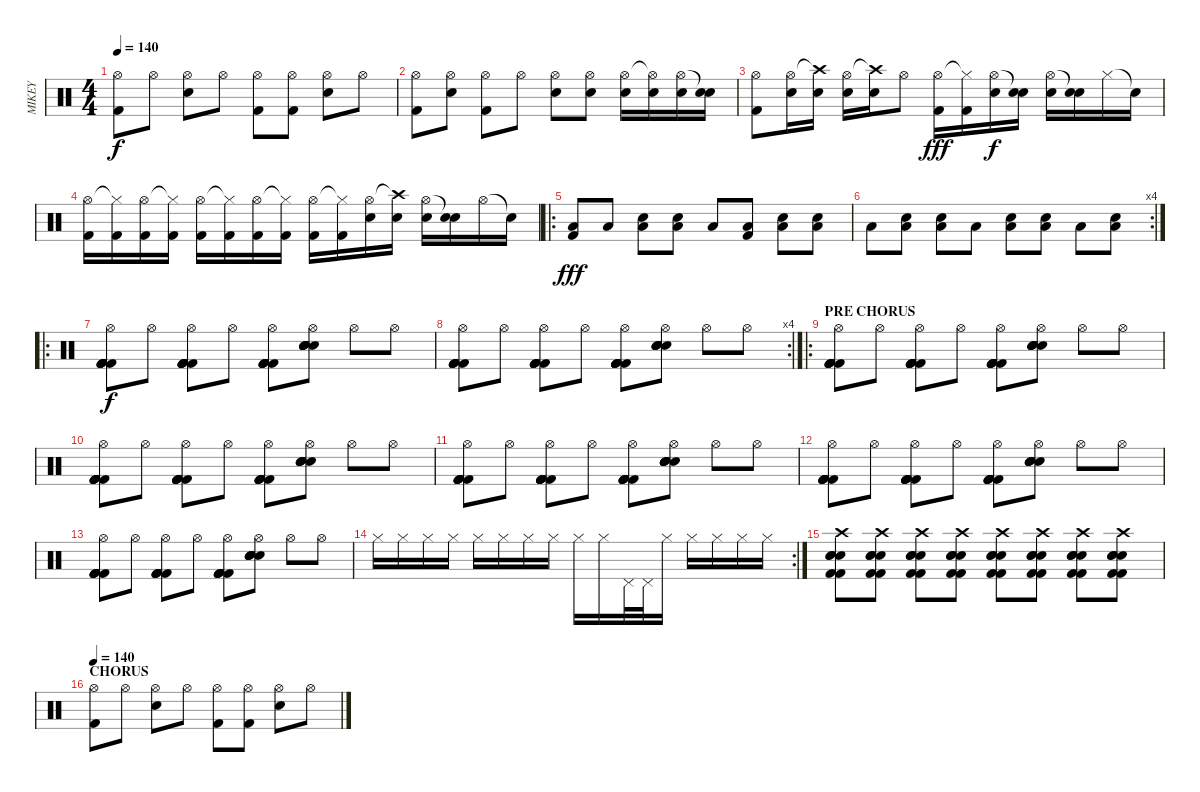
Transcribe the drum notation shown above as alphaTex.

\track ("MIKEY" "MIKEY") {instrument percussion}
\staff {score}
\articulation defaults
\ts (4 4)
\tempo 140
\clef neutral
\ks c
("Hi-Hat (open)" "Kick (hit) 2").8{dy f} "Hi-Hat (open)".8 ("Hi-Hat (open)" "Electric Snare (hit)").8 "Hi-Hat (open)".8 ("Hi-Hat (open)" "Kick (hit) 2").8 ("Hi-Hat (open)" "Kick (hit) 2").8 ("Hi-Hat (open)" "Electric Snare (hit)").8 "Hi-Hat (open)".8 |
("Hi-Hat (open)" "Kick (hit) 2").8 ("Hi-Hat (open)" "Electric Snare (hit)").8 ("Hi-Hat (open)" "Kick (hit) 2").8 "Hi-Hat (open)".8 ("Hi-Hat (open)" "Electric Snare (hit)").8 ("Hi-Hat (open)" "Electric Snare (hit)").8 ("Hi-Hat (open)" "Electric Snare (hit)").16 ("Hi-Hat (open)"{t} "Electric Snare (hit)").16 ("Hi-Hat (open)" "Electric Snare (hit)").16 ("Snare (hit)"{t} "Electric Snare (hit)").16 |
("Hi-Hat (open)" "Kick (hit) 2").8 ("Hi-Hat (open)" "Electric Snare (hit)").16 ("Crash high (hit)"{t} "Electric Snare (hit)").16 ("Hi-Hat (open)" "Electric Snare (hit)").16 ("Crash high (hit)"{t} "Electric Snare (hit)").16 "Hi-Hat (open)".8 ("Hi-Hat (open)" "Kick (hit) 2").16{dy fff} ("Hi-Hat (closed)"{t} "Kick (hit) 2").16 ("Hi-Hat (open)" "Electric Snare (hit)").16{dy f} ("Snare (hit)"{t} "Electric Snare (hit)").16 ("Hi-Hat (open)" "Electric Snare (hit)").16 ("Snare (hit)"{t} "Electric Snare (hit)").16 "Hi-Hat (closed)".16 "Snare (hit)"{t}.16 |
("Hi-Hat (open)" "Kick (hit) 2").16 ("Hi-Hat (closed)"{t} "Kick (hit) 2").16 ("Hi-Hat (open)" "Kick (hit) 2").16 ("Hi-Hat (closed)"{t} "Kick (hit) 2").16 ("Hi-Hat (open)" "Kick (hit) 2").16 ("Hi-Hat (closed)"{t} "Kick (hit) 2").16 ("Hi-Hat (open)" "Kick (hit) 2").16 ("Hi-Hat (closed)"{t} "Kick (hit) 2").16 ("Hi-Hat (open)" "Kick (hit) 2").16 ("Hi-Hat (closed)"{t} "Kick (hit) 2").16 ("Hi-Hat (open)" "Electric Snare (hit)").16 ("Crash high (hit)"{t} "Electric Snare (hit)").16 ("Hi-Hat (open)" "Electric Snare (hit)").16 ("Snare (hit)"{t} "Electric Snare (hit)").16 "Hi-Hat (open)".16 "Snare (hit)"{t}.16 |
\ro
("Low Floor Tom (hit)" "Kick (hit) 2").8{dy fff} "Low Floor Tom (hit)".8 ("Low Floor Tom (hit)" "Electric Snare (hit)").8 ("Low Floor Tom (hit)" "Electric Snare (hit)").8 "Low Floor Tom (hit)".8 ("Low Floor Tom (hit)" "Kick (hit) 2").8 ("Low Floor Tom (hit)" "Electric Snare (hit)").8 ("Low Floor Tom (hit)" "Electric Snare (hit)").8 |
\rc 4 "Low Floor Tom (hit)".8
("Low Floor Tom (hit)" "Electric Snare (hit)").8 ("Low Floor Tom (hit)" "Electric Snare (hit)").8 "Low Floor Tom (hit)".8 ("Low Floor Tom (hit)" "Electric Snare (hit)").8 ("Low Floor Tom (hit)" "Electric Snare (hit)").8 "Low Floor Tom (hit)".8 ("Low Floor Tom (hit)" "Electric Snare (hit)").8 |
\ro
("Kick (hit) 2" "Kick (hit) 2" "Kick (hit) 2" "Kick (hit) 2" "Kick (hit) 2" "Hi-Hat (open)").8{dy f} "Hi-Hat (open)".8 ("Kick (hit) 2" "Kick (hit) 2" "Kick (hit) 2" "Kick (hit) 2" "Kick (hit) 2" "Hi-Hat (open)").8 "Hi-Hat (open)".8 ("Kick (hit) 2" "Kick (hit) 2" "Kick (hit) 2" "Kick (hit) 2" "Kick (hit) 2" "Hi-Hat (open)").8 ("Snare (hit) 2" "Snare (hit) 2" "Snare (hit) 2" "Snare (hit) 2" "Snare (hit) 2" "Hi-Hat (open)").8 "Hi-Hat (open)".8 "Hi-Hat (open)".8 |
\rc 4
("Kick (hit) 2" "Kick (hit) 2" "Kick (hit) 2" "Kick (hit) 2" "Kick (hit) 2" "Hi-Hat (open)").8 "Hi-Hat (open)".8 ("Kick (hit) 2" "Kick (hit) 2" "Kick (hit) 2" "Kick (hit) 2" "Kick (hit) 2" "Hi-Hat (open)").8 "Hi-Hat (open)".8 ("Kick (hit) 2" "Kick (hit) 2" "Kick (hit) 2" "Kick (hit) 2" "Kick (hit) 2" "Hi-Hat (open)").8 ("Snare (hit) 2" "Snare (hit) 2" "Snare (hit) 2" "Snare (hit) 2" "Snare (hit) 2" "Hi-Hat (open)").8 "Hi-Hat (open)".8 "Hi-Hat (open)".8 |
\ro
\section ("" "PRE CHORUS")
("Kick (hit) 2" "Kick (hit) 2" "Kick (hit) 2" "Kick (hit) 2" "Kick (hit) 2" "Hi-Hat (open)").8 "Hi-Hat (open)".8 ("Kick (hit) 2" "Kick (hit) 2" "Kick (hit) 2" "Kick (hit) 2" "Kick (hit) 2" "Hi-Hat (open)").8 "Hi-Hat (open)".8 ("Kick (hit) 2" "Kick (hit) 2" "Kick (hit) 2" "Kick (hit) 2" "Kick (hit) 2" "Hi-Hat (open)").8 ("Snare (hit) 2" "Snare (hit) 2" "Snare (hit) 2" "Snare (hit) 2" "Snare (hit) 2" "Hi-Hat (open)").8 "Hi-Hat (open)".8 "Hi-Hat (open)".8 |
("Kick (hit) 2" "Kick (hit) 2" "Kick (hit) 2" "Kick (hit) 2" "Kick (hit) 2" "Hi-Hat (open)").8 "Hi-Hat (open)".8 ("Kick (hit) 2" "Kick (hit) 2" "Kick (hit) 2" "Kick (hit) 2" "Kick (hit) 2" "Hi-Hat (open)").8 "Hi-Hat (open)".8 ("Kick (hit) 2" "Kick (hit) 2" "Kick (hit) 2" "Kick (hit) 2" "Kick (hit) 2" "Hi-Hat (open)").8 ("Snare (hit) 2" "Snare (hit) 2" "Snare (hit) 2" "Snare (hit) 2" "Snare (hit) 2" "Hi-Hat (open)").8 "Hi-Hat (open)".8 "Hi-Hat (open)".8 |
("Kick (hit) 2" "Kick (hit) 2" "Kick (hit) 2" "Kick (hit) 2" "Kick (hit) 2" "Hi-Hat (open)").8 "Hi-Hat (open)".8 ("Kick (hit) 2" "Kick (hit) 2" "Kick (hit) 2" "Kick (hit) 2" "Kick (hit) 2" "Hi-Hat (open)").8 "Hi-Hat (open)".8 ("Kick (hit) 2" "Kick (hit) 2" "Kick (hit) 2" "Kick (hit) 2" "Kick (hit) 2" "Hi-Hat (open)").8 ("Snare (hit) 2" "Snare (hit) 2" "Snare (hit) 2" "Snare (hit) 2" "Snare (hit) 2" "Hi-Hat (open)").8 "Hi-Hat (open)".8 "Hi-Hat (open)".8 |
("Kick (hit) 2" "Kick (hit) 2" "Kick (hit) 2" "Kick (hit) 2" "Kick (hit) 2" "Hi-Hat (open)").8 "Hi-Hat (open)".8 ("Kick (hit) 2" "Kick (hit) 2" "Kick (hit) 2" "Kick (hit) 2" "Kick (hit) 2" "Hi-Hat (open)").8 "Hi-Hat (open)".8 ("Kick (hit) 2" "Kick (hit) 2" "Kick (hit) 2" "Kick (hit) 2" "Kick (hit) 2" "Hi-Hat (open)").8 ("Snare (hit) 2" "Snare (hit) 2" "Snare (hit) 2" "Snare (hit) 2" "Snare (hit) 2" "Hi-Hat (open)").8 "Hi-Hat (open)".8 "Hi-Hat (open)".8 |
("Kick (hit) 2" "Kick (hit) 2" "Kick (hit) 2" "Kick (hit) 2" "Kick (hit) 2" "Hi-Hat (open)").8 "Hi-Hat (open)".8 ("Kick (hit) 2" "Kick (hit) 2" "Kick (hit) 2" "Kick (hit) 2" "Kick (hit) 2" "Hi-Hat (open)").8 "Hi-Hat (open)".8 ("Kick (hit) 2" "Kick (hit) 2" "Kick (hit) 2" "Kick (hit) 2" "Kick (hit) 2" "Hi-Hat (open)").8 ("Snare (hit) 2" "Snare (hit) 2" "Snare (hit) 2" "Snare (hit) 2" "Snare (hit) 2" "Hi-Hat (open)").8 "Hi-Hat (open)".8 "Hi-Hat (open)".8 |
\rc 2 "Hi-Hat (closed)".16 "Hi-Hat (closed)".16 "Hi-Hat (closed)".16 "Hi-Hat (closed)".16 "Hi-Hat (closed)".16 "Hi-Hat (closed)".16 "Hi-Hat (closed)".16 "Hi-Hat (closed)".16 "Hi-Hat (closed)".16 "Hi-Hat (closed)".16 "Pedal Hi-Hat (hit)".32 "Pedal Hi-Hat (hit)".32 "Hi-Hat (closed)".16 "Hi-Hat (closed)".16 "Hi-Hat (closed)".16 "Hi-Hat (closed)".16 "Hi-Hat (closed)".16
|
("Snare (hit) 2" "Snare (hit) 2" "Kick (hit) 2" "Kick (hit) 2" "Electric Snare (hit)" "Crash high (hit)").8 ("Snare (hit) 2" "Snare (hit) 2" "Kick (hit) 2" "Kick (hit) 2" "Electric Snare (hit)" "Crash high (hit)").8 ("Snare (hit) 2" "Snare (hit) 2" "Kick (hit) 2" "Kick (hit) 2" "Electric Snare (hit)" "Crash high (hit)").8 ("Snare (hit) 2" "Snare (hit) 2" "Kick (hit) 2" "Kick (hit) 2" "Electric Snare (hit)" "Crash high (hit)").8 ("Snare (hit) 2" "Snare (hit) 2" "Kick (hit) 2" "Kick (hit) 2" "Electric Snare (hit)" "Crash high (hit)").8 ("Snare (hit) 2" "Snare (hit) 2" "Kick (hit) 2" "Kick (hit) 2" "Electric Snare (hit)" "Crash high (hit)").8 ("Snare (hit) 2" "Snare (hit) 2" "Kick (hit) 2" "Kick (hit) 2" "Electric Snare (hit)" "Crash high (hit)").8 ("Snare (hit) 2" "Snare (hit) 2" "Kick (hit) 2" "Kick (hit) 2" "Electric Snare (hit)" "Crash high (hit)").8 |
\section ("" "CHORUS")
\tempo 140
("Hi-Hat (open)" "Kick (hit) 2").8 "Hi-Hat (open)".8 ("Hi-Hat (open)" "Electric Snare (hit)").8 "Hi-Hat (open)".8 ("Hi-Hat (open)" "Kick (hit) 2").8 ("Hi-Hat (open)" "Kick (hit) 2").8 ("Hi-Hat (open)" "Electric Snare (hit)").8 "Hi-Hat (open)".8
